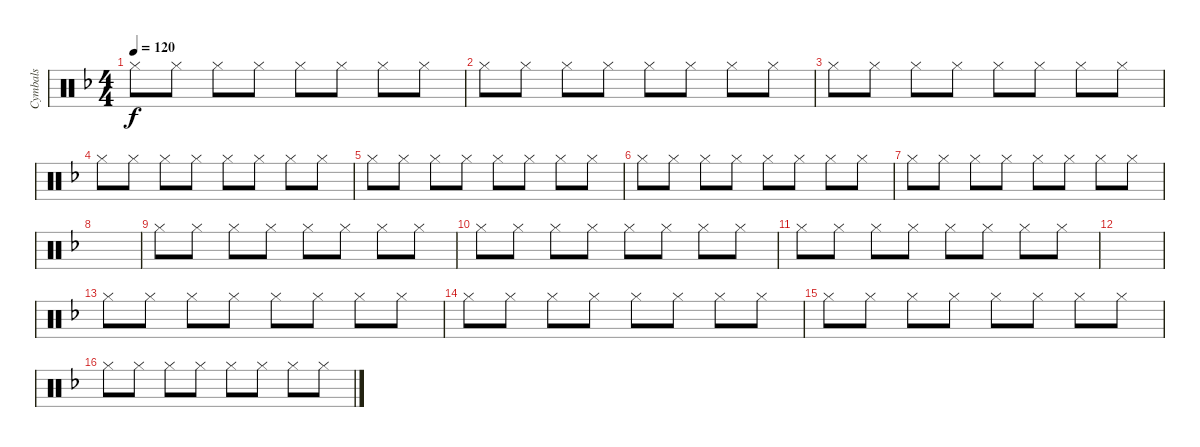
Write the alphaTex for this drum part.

\track ("Cymbals" "Cymbals") {instrument percussion}
\staff {score}
\articulation defaults
\ts (4 4)
\tempo 120
\clef neutral
\ks dminor "Hi-Hat (closed)".8{dy f} "Hi-Hat (closed)".8 "Hi-Hat (closed)".8 "Hi-Hat (closed)".8 "Hi-Hat (closed)".8 "Hi-Hat (closed)".8 "Hi-Hat (closed)".8 "Hi-Hat (closed)".8
|
"Hi-Hat (closed)".8 "Hi-Hat (closed)".8 "Hi-Hat (closed)".8 "Hi-Hat (closed)".8 "Hi-Hat (closed)".8 "Hi-Hat (closed)".8 "Hi-Hat (closed)".8 "Hi-Hat (closed)".8 |
"Hi-Hat (closed)".8 "Hi-Hat (closed)".8 "Hi-Hat (closed)".8 "Hi-Hat (closed)".8 "Hi-Hat (closed)".8 "Hi-Hat (closed)".8 "Hi-Hat (closed)".8 "Hi-Hat (closed)".8 |
"Hi-Hat (closed)".8 "Hi-Hat (closed)".8 "Hi-Hat (closed)".8 "Hi-Hat (closed)".8 "Hi-Hat (closed)".8 "Hi-Hat (closed)".8 "Hi-Hat (closed)".8 "Hi-Hat (closed)".8 |
"Hi-Hat (closed)".8 "Hi-Hat (closed)".8 "Hi-Hat (closed)".8 "Hi-Hat (closed)".8 "Hi-Hat (closed)".8 "Hi-Hat (closed)".8 "Hi-Hat (closed)".8 "Hi-Hat (closed)".8 |
"Hi-Hat (closed)".8 "Hi-Hat (closed)".8 "Hi-Hat (closed)".8 "Hi-Hat (closed)".8 "Hi-Hat (closed)".8 "Hi-Hat (closed)".8 "Hi-Hat (closed)".8 "Hi-Hat (closed)".8 |
"Hi-Hat (closed)".8 "Hi-Hat (closed)".8 "Hi-Hat (closed)".8 "Hi-Hat (closed)".8 "Hi-Hat (closed)".8 "Hi-Hat (closed)".8 "Hi-Hat (closed)".8 "Hi-Hat (closed)".8 |
|
"Hi-Hat (closed)".8 "Hi-Hat (closed)".8 "Hi-Hat (closed)".8 "Hi-Hat (closed)".8 "Hi-Hat (closed)".8 "Hi-Hat (closed)".8 "Hi-Hat (closed)".8 "Hi-Hat (closed)".8 |
"Hi-Hat (closed)".8 "Hi-Hat (closed)".8 "Hi-Hat (closed)".8 "Hi-Hat (closed)".8 "Hi-Hat (closed)".8 "Hi-Hat (closed)".8 "Hi-Hat (closed)".8 "Hi-Hat (closed)".8 |
"Hi-Hat (closed)".8 "Hi-Hat (closed)".8 "Hi-Hat (closed)".8 "Hi-Hat (closed)".8 "Hi-Hat (closed)".8 "Hi-Hat (closed)".8 "Hi-Hat (closed)".8 "Hi-Hat (closed)".8 |
|
"Hi-Hat (closed)".8 "Hi-Hat (closed)".8 "Hi-Hat (closed)".8 "Hi-Hat (closed)".8 "Hi-Hat (closed)".8 "Hi-Hat (closed)".8 "Hi-Hat (closed)".8 "Hi-Hat (closed)".8 |
"Hi-Hat (closed)".8 "Hi-Hat (closed)".8 "Hi-Hat (closed)".8 "Hi-Hat (closed)".8 "Hi-Hat (closed)".8 "Hi-Hat (closed)".8 "Hi-Hat (closed)".8 "Hi-Hat (closed)".8 |
"Hi-Hat (closed)".8 "Hi-Hat (closed)".8 "Hi-Hat (closed)".8 "Hi-Hat (closed)".8 "Hi-Hat (closed)".8 "Hi-Hat (closed)".8 "Hi-Hat (closed)".8 "Hi-Hat (closed)".8 |
"Hi-Hat (closed)".8 "Hi-Hat (closed)".8 "Hi-Hat (closed)".8 "Hi-Hat (closed)".8 "Hi-Hat (closed)".8 "Hi-Hat (closed)".8 "Hi-Hat (closed)".8 "Hi-Hat (closed)".8
